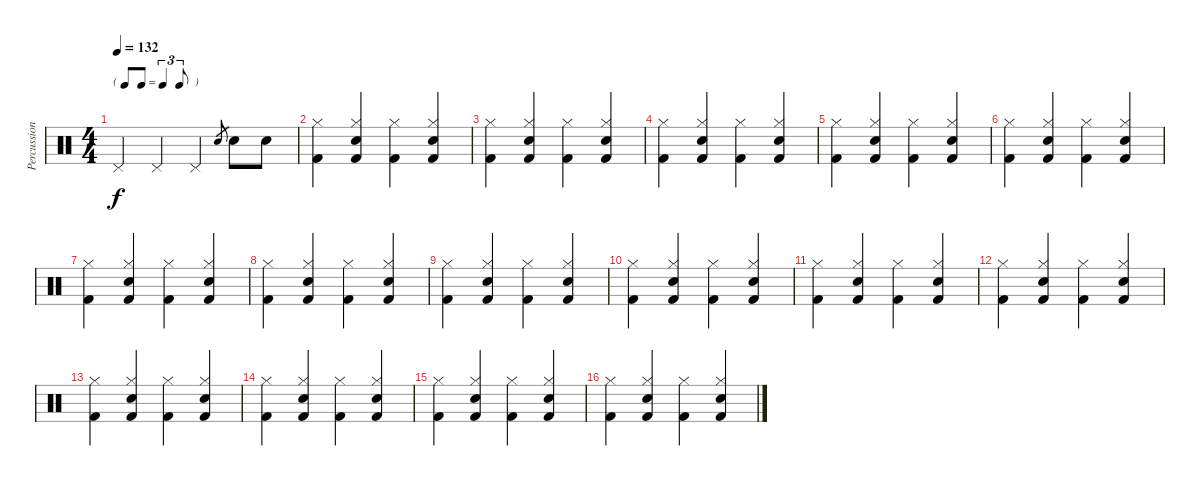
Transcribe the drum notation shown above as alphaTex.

\track ("Percussion" "Percussion") {instrument percussion}
\staff {score}
\articulation defaults
\ts (4 4)
\tf triplet8th
\tempo 132
\clef neutral
\ks c "Pedal Hi-Hat (hit)".4{dy f} "Pedal Hi-Hat (hit)".4 "Pedal Hi-Hat (hit)".4 "Snare (hit) 2".8{gr} "Snare (hit) 2".8 "Snare (hit) 2".8
|
("Hi-Hat (closed)" "Kick (hit) 2").4 ("Hi-Hat (closed)" "Snare (hit) 2" "Kick (hit) 2").4 ("Hi-Hat (closed)" "Kick (hit) 2").4 ("Hi-Hat (closed)" "Snare (hit) 2" "Kick (hit) 2").4 |
("Hi-Hat (closed)" "Kick (hit) 2").4 ("Hi-Hat (closed)" "Snare (hit) 2" "Kick (hit) 2").4 ("Hi-Hat (closed)" "Kick (hit) 2").4 ("Hi-Hat (closed)" "Snare (hit) 2" "Kick (hit) 2").4 |
("Hi-Hat (closed)" "Kick (hit) 2").4 ("Hi-Hat (closed)" "Snare (hit) 2" "Kick (hit) 2").4 ("Hi-Hat (closed)" "Kick (hit) 2").4 ("Hi-Hat (closed)" "Snare (hit) 2" "Kick (hit) 2").4 |
("Hi-Hat (closed)" "Kick (hit) 2").4 ("Hi-Hat (closed)" "Snare (hit) 2" "Kick (hit) 2").4 ("Hi-Hat (closed)" "Kick (hit) 2").4 ("Hi-Hat (closed)" "Snare (hit) 2" "Kick (hit) 2").4 |
("Hi-Hat (closed)" "Kick (hit) 2").4 ("Hi-Hat (closed)" "Snare (hit) 2" "Kick (hit) 2").4 ("Hi-Hat (closed)" "Kick (hit) 2").4 ("Hi-Hat (closed)" "Snare (hit) 2" "Kick (hit) 2").4 |
("Hi-Hat (closed)" "Kick (hit) 2").4 ("Hi-Hat (closed)" "Snare (hit) 2" "Kick (hit) 2").4 ("Hi-Hat (closed)" "Kick (hit) 2").4 ("Hi-Hat (closed)" "Snare (hit) 2" "Kick (hit) 2").4 |
("Hi-Hat (closed)" "Kick (hit) 2").4 ("Hi-Hat (closed)" "Snare (hit) 2" "Kick (hit) 2").4 ("Hi-Hat (closed)" "Kick (hit) 2").4 ("Hi-Hat (closed)" "Snare (hit) 2" "Kick (hit) 2").4 |
("Hi-Hat (closed)" "Kick (hit) 2").4 ("Hi-Hat (closed)" "Snare (hit) 2" "Kick (hit) 2").4 ("Hi-Hat (closed)" "Kick (hit) 2").4 ("Hi-Hat (closed)" "Snare (hit) 2" "Kick (hit) 2").4 |
("Hi-Hat (closed)" "Kick (hit) 2").4 ("Hi-Hat (closed)" "Snare (hit) 2" "Kick (hit) 2").4 ("Hi-Hat (closed)" "Kick (hit) 2").4 ("Hi-Hat (closed)" "Snare (hit) 2" "Kick (hit) 2").4 |
("Hi-Hat (closed)" "Kick (hit) 2").4 ("Hi-Hat (closed)" "Snare (hit) 2" "Kick (hit) 2").4 ("Hi-Hat (closed)" "Kick (hit) 2").4 ("Hi-Hat (closed)" "Snare (hit) 2" "Kick (hit) 2").4 |
("Hi-Hat (closed)" "Kick (hit) 2").4 ("Hi-Hat (closed)" "Snare (hit) 2" "Kick (hit) 2").4 ("Hi-Hat (closed)" "Kick (hit) 2").4 ("Hi-Hat (closed)" "Snare (hit) 2" "Kick (hit) 2").4 |
("Hi-Hat (closed)" "Kick (hit) 2").4 ("Hi-Hat (closed)" "Snare (hit) 2" "Kick (hit) 2").4 ("Hi-Hat (closed)" "Kick (hit) 2").4 ("Hi-Hat (closed)" "Snare (hit) 2" "Kick (hit) 2").4 |
("Hi-Hat (closed)" "Kick (hit) 2").4 ("Hi-Hat (closed)" "Snare (hit) 2" "Kick (hit) 2").4 ("Hi-Hat (closed)" "Kick (hit) 2").4 ("Hi-Hat (closed)" "Snare (hit) 2" "Kick (hit) 2").4 |
("Hi-Hat (closed)" "Kick (hit) 2").4 ("Hi-Hat (closed)" "Snare (hit) 2" "Kick (hit) 2").4 ("Hi-Hat (closed)" "Kick (hit) 2").4 ("Hi-Hat (closed)" "Snare (hit) 2" "Kick (hit) 2").4 |
("Hi-Hat (closed)" "Kick (hit) 2").4 ("Hi-Hat (closed)" "Snare (hit) 2" "Kick (hit) 2").4 ("Hi-Hat (closed)" "Kick (hit) 2").4 ("Hi-Hat (closed)" "Snare (hit) 2" "Kick (hit) 2").4
